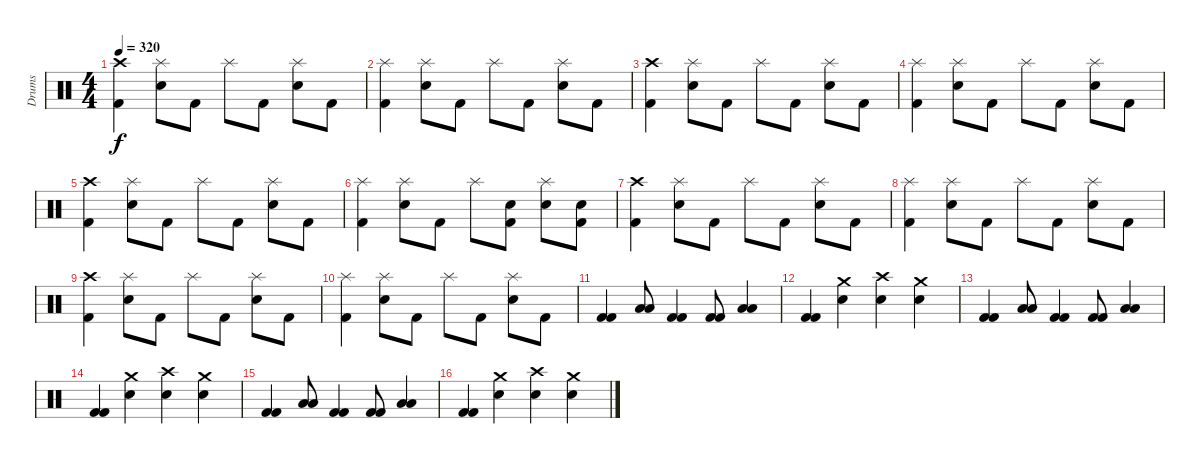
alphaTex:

\track ("Drums" "Drums") {instrument percussion}
\staff {score}
\articulation defaults
\ts (4 4)
\tempo 320
\clef neutral
\ks c
("Crash high (hit)" "Kick (hit) 2").4{dy f} ("Splash (hit)" "Electric Snare (hit)").8 "Kick (hit) 2".8 "Splash (hit)".8 "Kick (hit) 2".8 ("Splash (hit)" "Electric Snare (hit)").8 "Kick (hit) 2".8 |
("Splash (hit)" "Kick (hit) 2").4 ("Splash (hit)" "Electric Snare (hit)").8 "Kick (hit) 2".8 "Splash (hit)".8 "Kick (hit) 2".8 ("Splash (hit)" "Electric Snare (hit)").8 "Kick (hit) 2".8 |
("Crash high (hit)" "Kick (hit) 2").4 ("Splash (hit)" "Electric Snare (hit)").8 "Kick (hit) 2".8 "Splash (hit)".8 "Kick (hit) 2".8 ("Splash (hit)" "Electric Snare (hit)").8 "Kick (hit) 2".8 |
("Splash (hit)" "Kick (hit) 2").4 ("Splash (hit)" "Electric Snare (hit)").8 "Kick (hit) 2".8 "Splash (hit)".8 "Kick (hit) 2".8 ("Splash (hit)" "Electric Snare (hit)").8 "Kick (hit) 2".8 |
("Crash high (hit)" "Kick (hit) 2").4 ("Splash (hit)" "Electric Snare (hit)").8 "Kick (hit) 2".8 "Splash (hit)".8 "Kick (hit) 2".8 ("Splash (hit)" "Electric Snare (hit)").8 "Kick (hit) 2".8 |
("Splash (hit)" "Kick (hit) 2").4 ("Splash (hit)" "Electric Snare (hit)").8 "Kick (hit) 2".8 "Splash (hit)".8 ("Electric Snare (hit)" "Kick (hit) 2").8 ("Splash (hit)" "Electric Snare (hit)").8 ("Electric Snare (hit)" "Kick (hit) 2").8 |
("Crash high (hit)" "Kick (hit) 2").4 ("Splash (hit)" "Electric Snare (hit)").8 "Kick (hit) 2".8 "Splash (hit)".8 "Kick (hit) 2".8 ("Splash (hit)" "Electric Snare (hit)").8 "Kick (hit) 2".8 |
("Splash (hit)" "Kick (hit) 2").4 ("Splash (hit)" "Electric Snare (hit)").8 "Kick (hit) 2".8 "Splash (hit)".8 "Kick (hit) 2".8 ("Splash (hit)" "Electric Snare (hit)").8 "Kick (hit) 2".8 |
("Crash high (hit)" "Kick (hit) 2").4 ("Splash (hit)" "Electric Snare (hit)").8 "Kick (hit) 2".8 "Splash (hit)".8 "Kick (hit) 2".8 ("Splash (hit)" "Electric Snare (hit)").8 "Kick (hit) 2".8 |
("Splash (hit)" "Kick (hit) 2").4 ("Splash (hit)" "Electric Snare (hit)").8 "Kick (hit) 2".8 "Splash (hit)".8 "Kick (hit) 2".8 ("Splash (hit)" "Electric Snare (hit)").8 "Kick (hit) 2".8 |
("Kick (hit) 2" "Kick (hit) 2").4 ("Low Tom (hit)" "Low Tom (hit)").8 ("Kick (hit) 2" "Kick (hit) 2").4 ("Kick (hit) 2" "Kick (hit) 2").8 ("Low Tom (hit)" "Low Tom (hit)").4 |
("Kick (hit) 2" "Kick (hit) 2").4 ("Crash medium (hit)" "Electric Snare (hit)").4 ("Crash high (hit)" "Electric Snare (hit)").4 ("Crash medium (hit)" "Electric Snare (hit)").4 |
("Kick (hit) 2" "Kick (hit) 2").4 ("Low Tom (hit)" "Low Tom (hit)").8 ("Kick (hit) 2" "Kick (hit) 2").4 ("Kick (hit) 2" "Kick (hit) 2").8 ("Low Tom (hit)" "Low Tom (hit)").4 |
("Kick (hit) 2" "Kick (hit) 2").4 ("Crash medium (hit)" "Electric Snare (hit)").4 ("Crash high (hit)" "Electric Snare (hit)").4 ("Crash medium (hit)" "Electric Snare (hit)").4 |
("Kick (hit) 2" "Kick (hit) 2").4 ("Low Tom (hit)" "Low Tom (hit)").8 ("Kick (hit) 2" "Kick (hit) 2").4 ("Kick (hit) 2" "Kick (hit) 2").8 ("Low Tom (hit)" "Low Tom (hit)").4 |
("Kick (hit) 2" "Kick (hit) 2").4 ("Crash medium (hit)" "Electric Snare (hit)").4 ("Crash high (hit)" "Electric Snare (hit)").4 ("Crash medium (hit)" "Electric Snare (hit)").4
